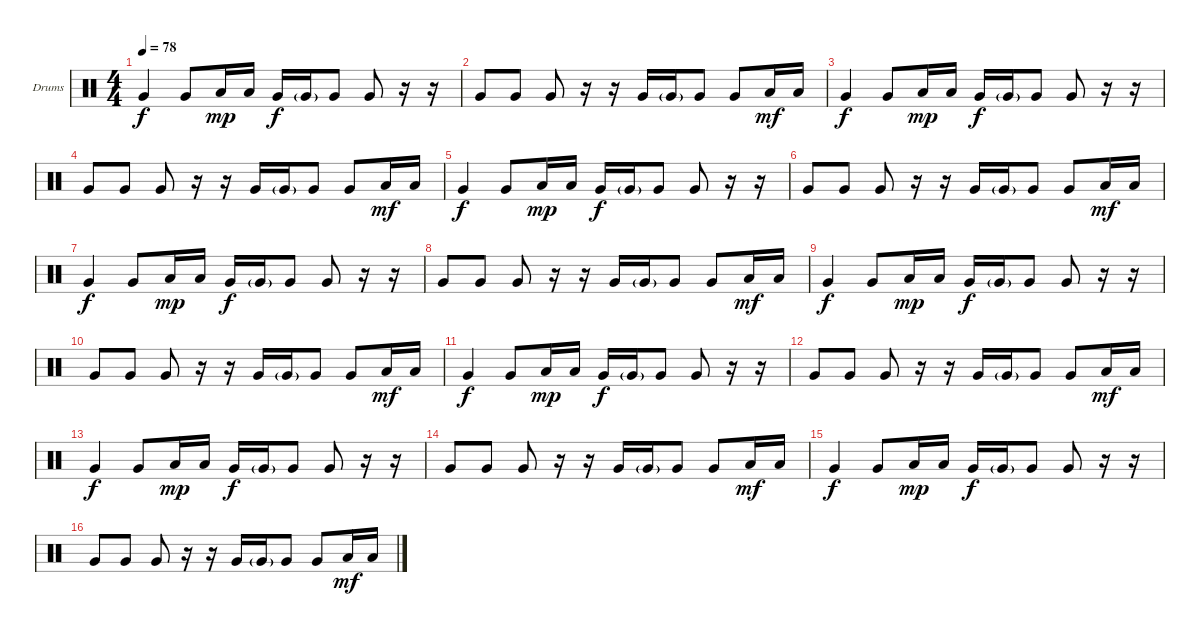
\defaultSystemsLayout 4
\bracketExtendMode groupsimilarinstruments
\firstSystemTrackNameOrientation horizontal
\otherSystemsTrackNameOrientation horizontal
\track ("Drumkit" "Drums") {instrument percussion}
\staff {score}
\articulation defaults
\ts (4 4)
\tempo 78
\clef neutral
\ks c "Very Low Tom (hit)".4{dy f} "Very Low Tom (hit)".8 "Low Tom (hit)".16{dy mp} "Low Tom (hit)".16 "Very Low Tom (hit)".16{dy f} "Very Low Tom (hit)"{g}.16 "Very Low Tom (hit)".8 "Very Low Tom (hit)".8
r.16 r.16 |
"Very Low Tom (hit)".8 "Very Low Tom (hit)".8 "Very Low Tom (hit)".8 r.16 r.16 "Very Low Tom (hit)".16 "Very Low Tom (hit)"{g}.16 "Very Low Tom (hit)".8 "Very Low Tom (hit)".8 "Low Tom (hit)".16{dy mf} "Low Tom (hit)".16 |
\scale
0.333333 "Very Low Tom (hit)".4{dy f} "Very Low Tom (hit)".8 "Low Tom (hit)".16{dy mp} "Low Tom (hit)".16 "Very Low Tom (hit)".16{dy f} "Very Low Tom (hit)"{g}.16 "Very Low Tom (hit)".8 "Very Low Tom (hit)".8 r.16 r.16 |
\scale
0.333333 "Very Low Tom (hit)".8 "Very Low Tom (hit)".8 "Very Low Tom (hit)".8 r.16 r.16 "Very Low Tom (hit)".16 "Very Low Tom (hit)"{g}.16 "Very Low Tom (hit)".8 "Very Low Tom (hit)".8 "Low Tom (hit)".16{dy mf} "Low Tom (hit)".16 |
\scale
0.333333 "Very Low Tom (hit)".4{dy f} "Very Low Tom (hit)".8 "Low Tom (hit)".16{dy mp} "Low Tom (hit)".16 "Very Low Tom (hit)".16{dy f} "Very Low Tom (hit)"{g}.16 "Very Low Tom (hit)".8 "Very Low Tom (hit)".8 r.16 r.16 |
\scale
0.333333 "Very Low Tom (hit)".8 "Very Low Tom (hit)".8 "Very Low Tom (hit)".8 r.16 r.16 "Very Low Tom (hit)".16 "Very Low Tom (hit)"{g}.16 "Very Low Tom (hit)".8 "Very Low Tom (hit)".8 "Low Tom (hit)".16{dy mf} "Low Tom (hit)".16 |
\scale
0.333333 "Very Low Tom (hit)".4{dy f} "Very Low Tom (hit)".8 "Low Tom (hit)".16{dy mp} "Low Tom (hit)".16 "Very Low Tom (hit)".16{dy f} "Very Low Tom (hit)"{g}.16 "Very Low Tom (hit)".8 "Very Low Tom (hit)".8 r.16 r.16 |
\scale
0.333333 "Very Low Tom (hit)".8 "Very Low Tom (hit)".8 "Very Low Tom (hit)".8 r.16 r.16 "Very Low Tom (hit)".16 "Very Low Tom (hit)"{g}.16 "Very Low Tom (hit)".8 "Very Low Tom (hit)".8 "Low Tom (hit)".16{dy mf} "Low Tom (hit)".16 |
\scale
0.333333 "Very Low Tom (hit)".4{dy f} "Very Low Tom (hit)".8 "Low Tom (hit)".16{dy mp} "Low Tom (hit)".16 "Very Low Tom (hit)".16{dy f} "Very Low Tom (hit)"{g}.16 "Very Low Tom (hit)".8 "Very Low Tom (hit)".8 r.16 r.16 |
\scale
0.333333 "Very Low Tom (hit)".8 "Very Low Tom (hit)".8 "Very Low Tom (hit)".8 r.16 r.16 "Very Low Tom (hit)".16 "Very Low Tom (hit)"{g}.16 "Very Low Tom (hit)".8 "Very Low Tom (hit)".8 "Low Tom (hit)".16{dy mf} "Low Tom (hit)".16 |
\scale
0.333333 "Very Low Tom (hit)".4{dy f} "Very Low Tom (hit)".8 "Low Tom (hit)".16{dy mp} "Low Tom (hit)".16 "Very Low Tom (hit)".16{dy f} "Very Low Tom (hit)"{g}.16 "Very Low Tom (hit)".8 "Very Low Tom (hit)".8 r.16 r.16 |
\scale
0.333333 "Very Low Tom (hit)".8 "Very Low Tom (hit)".8 "Very Low Tom (hit)".8 r.16 r.16 "Very Low Tom (hit)".16 "Very Low Tom (hit)"{g}.16 "Very Low Tom (hit)".8 "Very Low Tom (hit)".8 "Low Tom (hit)".16{dy mf} "Low Tom (hit)".16 |
\scale
0.333333 "Very Low Tom (hit)".4{dy f} "Very Low Tom (hit)".8 "Low Tom (hit)".16{dy mp} "Low Tom (hit)".16 "Very Low Tom (hit)".16{dy f} "Very Low Tom (hit)"{g}.16 "Very Low Tom (hit)".8 "Very Low Tom (hit)".8 r.16 r.16 |
\scale
0.333333 "Very Low Tom (hit)".8 "Very Low Tom (hit)".8 "Very Low Tom (hit)".8 r.16 r.16 "Very Low Tom (hit)".16 "Very Low Tom (hit)"{g}.16 "Very Low Tom (hit)".8 "Very Low Tom (hit)".8 "Low Tom (hit)".16{dy mf} "Low Tom (hit)".16 |
\scale
0.333333 "Very Low Tom (hit)".4{dy f} "Very Low Tom (hit)".8 "Low Tom (hit)".16{dy mp} "Low Tom (hit)".16 "Very Low Tom (hit)".16{dy f} "Very Low Tom (hit)"{g}.16 "Very Low Tom (hit)".8 "Very Low Tom (hit)".8 r.16 r.16 |
\scale
0.333333 "Very Low Tom (hit)".8 "Very Low Tom (hit)".8 "Very Low Tom (hit)".8 r.16 r.16 "Very Low Tom (hit)".16 "Very Low Tom (hit)"{g}.16 "Very Low Tom (hit)".8 "Very Low Tom (hit)".8 "Low Tom (hit)".16{dy mf} "Low Tom (hit)".16
